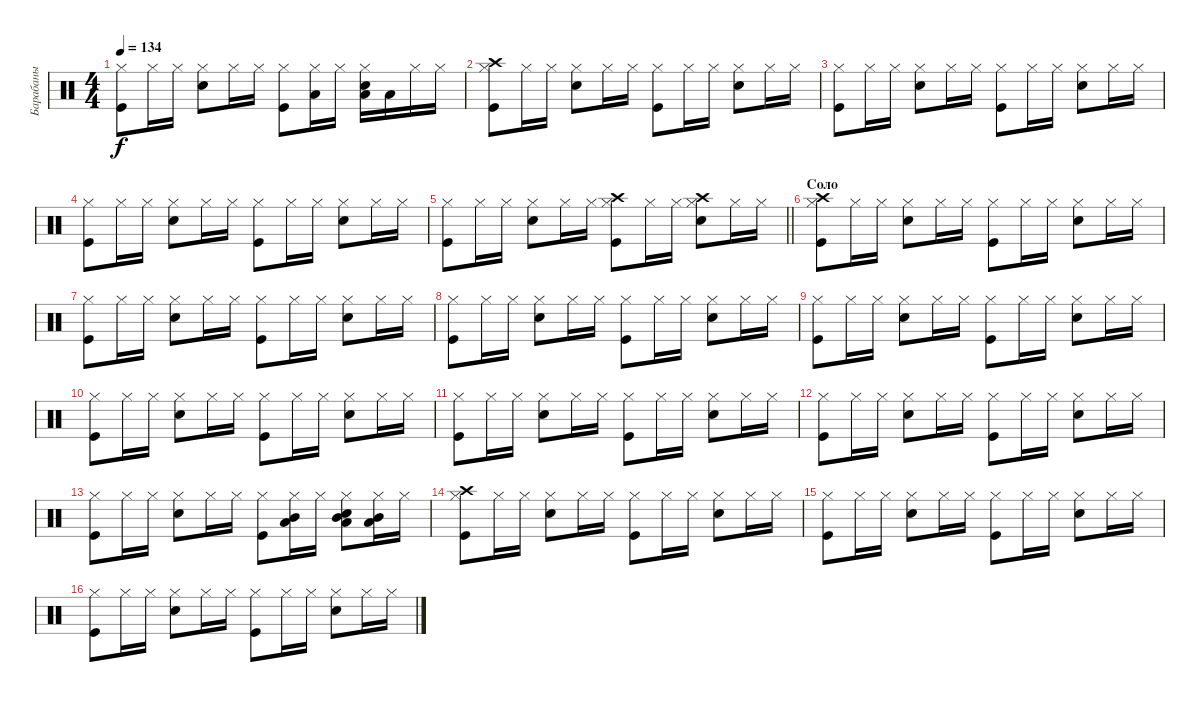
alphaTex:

\track ("Барабаны" "Барабаны") {instrument percussion}
\staff {score}
\articulation defaults
\ts (4 4)
\tempo 134
\clef neutral
\ks c
("Kick (hit)" "Hi-Hat (closed)").8{dy f} "Hi-Hat (closed)".16 "Hi-Hat (closed)".16 ("Snare (hit) 2" "Hi-Hat (closed)").8 "Hi-Hat (closed)".16 "Hi-Hat (closed)".16 ("Kick (hit)" "Hi-Hat (closed)").8 ("Hi-Hat (closed)" "Low Tom (hit)").16 "Hi-Hat (closed)".16 ("Snare (hit) 2" "Hi-Hat (closed)" "Low Tom (hit)").16 "Low Tom (hit)".16 "Hi-Hat (closed)".16 "Hi-Hat (closed)".16 |
("Kick (hit)" "Hi-Hat (closed)" "Crash high (hit)").8 "Hi-Hat (closed)".16 "Hi-Hat (closed)".16 ("Snare (hit) 2" "Hi-Hat (closed)").8 "Hi-Hat (closed)".16 "Hi-Hat (closed)".16 ("Kick (hit)" "Hi-Hat (closed)").8 "Hi-Hat (closed)".16 "Hi-Hat (closed)".16 ("Snare (hit) 2" "Hi-Hat (closed)").8 "Hi-Hat (closed)".16 "Hi-Hat (closed)".16 |
("Kick (hit)" "Hi-Hat (closed)").8 "Hi-Hat (closed)".16 "Hi-Hat (closed)".16 ("Snare (hit) 2" "Hi-Hat (closed)").8 "Hi-Hat (closed)".16 "Hi-Hat (closed)".16 ("Kick (hit)" "Hi-Hat (closed)").8 "Hi-Hat (closed)".16 "Hi-Hat (closed)".16 ("Snare (hit) 2" "Hi-Hat (closed)").8 "Hi-Hat (closed)".16 "Hi-Hat (closed)".16 |
("Kick (hit)" "Hi-Hat (closed)").8 "Hi-Hat (closed)".16 "Hi-Hat (closed)".16 ("Snare (hit) 2" "Hi-Hat (closed)").8 "Hi-Hat (closed)".16 "Hi-Hat (closed)".16 ("Kick (hit)" "Hi-Hat (closed)").8 "Hi-Hat (closed)".16 "Hi-Hat (closed)".16 ("Snare (hit) 2" "Hi-Hat (closed)").8 "Hi-Hat (closed)".16 "Hi-Hat (closed)".16 |
\barLineRight lightlight
("Kick (hit)" "Hi-Hat (closed)").8 "Hi-Hat (closed)".16 "Hi-Hat (closed)".16 ("Snare (hit) 2" "Hi-Hat (closed)").8 "Hi-Hat (closed)".16 "Hi-Hat (closed)".16 ("Kick (hit)" "Hi-Hat (closed)" "Crash high (hit)").8 "Hi-Hat (closed)".16 "Hi-Hat (closed)".16 ("Snare (hit) 2" "Hi-Hat (closed)" "Crash high (hit)").8 "Hi-Hat (closed)".16 "Hi-Hat (closed)".16 |
\section ("" "Соло")
("Kick (hit)" "Hi-Hat (closed)" "Crash high (hit)").8 "Hi-Hat (closed)".16 "Hi-Hat (closed)".16 ("Snare (hit) 2" "Hi-Hat (closed)").8 "Hi-Hat (closed)".16 "Hi-Hat (closed)".16 ("Kick (hit)" "Hi-Hat (closed)").8 "Hi-Hat (closed)".16 "Hi-Hat (closed)".16 ("Snare (hit) 2" "Hi-Hat (closed)").8 "Hi-Hat (closed)".16 "Hi-Hat (closed)".16 |
("Kick (hit)" "Hi-Hat (closed)").8 "Hi-Hat (closed)".16 "Hi-Hat (closed)".16 ("Snare (hit) 2" "Hi-Hat (closed)").8 "Hi-Hat (closed)".16 "Hi-Hat (closed)".16 ("Kick (hit)" "Hi-Hat (closed)").8 "Hi-Hat (closed)".16 "Hi-Hat (closed)".16 ("Snare (hit) 2" "Hi-Hat (closed)").8 "Hi-Hat (closed)".16 "Hi-Hat (closed)".16 |
("Kick (hit)" "Hi-Hat (closed)").8 "Hi-Hat (closed)".16 "Hi-Hat (closed)".16 ("Snare (hit) 2" "Hi-Hat (closed)").8 "Hi-Hat (closed)".16 "Hi-Hat (closed)".16 ("Kick (hit)" "Hi-Hat (closed)").8 "Hi-Hat (closed)".16 "Hi-Hat (closed)".16 ("Snare (hit) 2" "Hi-Hat (closed)").8 "Hi-Hat (closed)".16 "Hi-Hat (closed)".16 |
("Kick (hit)" "Hi-Hat (closed)").8 "Hi-Hat (closed)".16 "Hi-Hat (closed)".16 ("Snare (hit) 2" "Hi-Hat (closed)").8 "Hi-Hat (closed)".16 "Hi-Hat (closed)".16 ("Kick (hit)" "Hi-Hat (closed)").8 "Hi-Hat (closed)".16 "Hi-Hat (closed)".16 ("Snare (hit) 2" "Hi-Hat (closed)").8 "Hi-Hat (closed)".16 "Hi-Hat (closed)".16 |
("Kick (hit)" "Hi-Hat (closed)").8 "Hi-Hat (closed)".16 "Hi-Hat (closed)".16 ("Snare (hit) 2" "Hi-Hat (closed)").8 "Hi-Hat (closed)".16 "Hi-Hat (closed)".16 ("Kick (hit)" "Hi-Hat (closed)").8 "Hi-Hat (closed)".16 "Hi-Hat (closed)".16 ("Snare (hit) 2" "Hi-Hat (closed)").8 "Hi-Hat (closed)".16 "Hi-Hat (closed)".16 |
("Kick (hit)" "Hi-Hat (closed)").8 "Hi-Hat (closed)".16 "Hi-Hat (closed)".16 ("Snare (hit) 2" "Hi-Hat (closed)").8 "Hi-Hat (closed)".16 "Hi-Hat (closed)".16 ("Kick (hit)" "Hi-Hat (closed)").8 "Hi-Hat (closed)".16 "Hi-Hat (closed)".16 ("Snare (hit) 2" "Hi-Hat (closed)").8 "Hi-Hat (closed)".16 "Hi-Hat (closed)".16 |
("Kick (hit)" "Hi-Hat (closed)").8 "Hi-Hat (closed)".16 "Hi-Hat (closed)".16 ("Snare (hit) 2" "Hi-Hat (closed)").8 "Hi-Hat (closed)".16 "Hi-Hat (closed)".16 ("Kick (hit)" "Hi-Hat (closed)").8 "Hi-Hat (closed)".16 "Hi-Hat (closed)".16 ("Snare (hit) 2" "Hi-Hat (closed)").8 "Hi-Hat (closed)".16 "Hi-Hat (closed)".16 |
("Kick (hit)" "Hi-Hat (closed)").8 "Hi-Hat (closed)".16 "Hi-Hat (closed)".16 ("Snare (hit) 2" "Hi-Hat (closed)").8 "Hi-Hat (closed)".16 "Hi-Hat (closed)".16 ("Kick (hit)" "Hi-Hat (closed)").8 ("Hi-Hat (closed)" "Low Floor Tom (hit)" "Mid Tom (hit)").16 "Hi-Hat (closed)".16 ("Snare (hit) 2" "Hi-Hat (closed)" "Low Floor Tom (hit)" "Mid Tom (hit)").8 ("Hi-Hat (closed)" "Low Floor Tom (hit)" "Mid Tom (hit)").16 "Hi-Hat (closed)".16 |
("Kick (hit)" "Hi-Hat (closed)" "Crash high (hit)").8 "Hi-Hat (closed)".16 "Hi-Hat (closed)".16 ("Snare (hit) 2" "Hi-Hat (closed)").8 "Hi-Hat (closed)".16 "Hi-Hat (closed)".16 ("Kick (hit)" "Hi-Hat (closed)").8 "Hi-Hat (closed)".16 "Hi-Hat (closed)".16 ("Snare (hit) 2" "Hi-Hat (closed)").8 "Hi-Hat (closed)".16 "Hi-Hat (closed)".16 |
("Kick (hit)" "Hi-Hat (closed)").8 "Hi-Hat (closed)".16 "Hi-Hat (closed)".16 ("Snare (hit) 2" "Hi-Hat (closed)").8 "Hi-Hat (closed)".16 "Hi-Hat (closed)".16 ("Kick (hit)" "Hi-Hat (closed)").8 "Hi-Hat (closed)".16 "Hi-Hat (closed)".16 ("Snare (hit) 2" "Hi-Hat (closed)").8 "Hi-Hat (closed)".16 "Hi-Hat (closed)".16 |
("Kick (hit)" "Hi-Hat (closed)").8 "Hi-Hat (closed)".16 "Hi-Hat (closed)".16 ("Snare (hit) 2" "Hi-Hat (closed)").8 "Hi-Hat (closed)".16 "Hi-Hat (closed)".16 ("Kick (hit)" "Hi-Hat (closed)").8 "Hi-Hat (closed)".16 "Hi-Hat (closed)".16 ("Snare (hit) 2" "Hi-Hat (closed)").8 "Hi-Hat (closed)".16 "Hi-Hat (closed)".16
